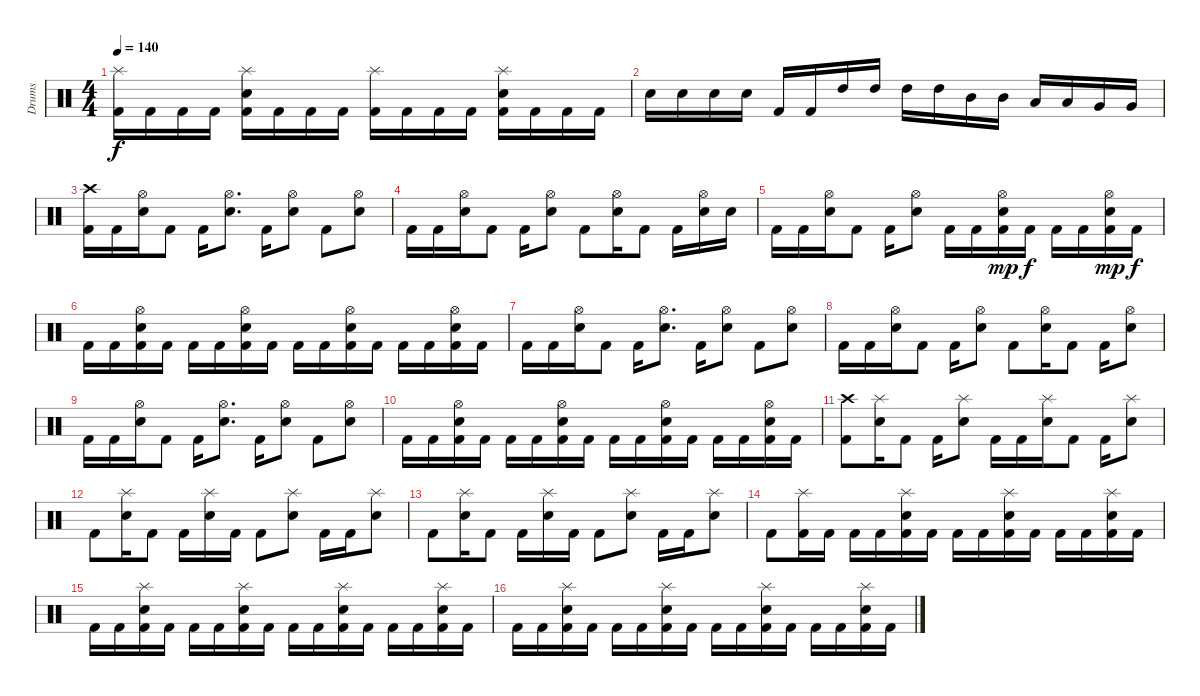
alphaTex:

\track ("Drums" "Drums") {instrument percussion}
\staff {score}
\articulation defaults
\ts (4 4)
\tempo 140
\clef neutral
\ks c
("Splash (hit)" "Kick (hit) 2").16{dy f} "Kick (hit) 2".16 "Kick (hit) 2".16 "Kick (hit) 2".16 ("Splash (hit)" "Snare (hit) 2" "Kick (hit) 2").16 "Kick (hit) 2".16 "Kick (hit) 2".16 "Kick (hit) 2".16 ("Splash (hit)" "Kick (hit) 2").16 "Kick (hit) 2".16 "Kick (hit) 2".16 "Kick (hit) 2".16 ("Splash (hit)" "Snare (hit) 2" "Kick (hit) 2").16 "Kick (hit) 2".16 "Kick (hit) 2".16 "Kick (hit) 2".16 |
"Snare (hit) 2".16 "Snare (hit) 2".16 "Snare (hit) 2".16 "Snare (hit) 2".16 "Kick (hit) 2".16 "Kick (hit) 2".16 "High Tom (hit)".16 "High Tom (hit)".16 "High Tom (hit)".16 "High Tom (hit)".16 "Mid Tom (hit)".16 "Mid Tom (hit)".16 "Low Tom (hit)".16 "Low Tom (hit)".16 "Very Low Tom (hit)".16 "Very Low Tom (hit)".16 |
("Crash high (hit)" "Kick (hit) 2").16 "Kick (hit) 2".16 ("Hi-Hat (open)" "Snare (hit) 2").16 "Kick (hit) 2".8 "Kick (hit) 2".16 ("Hi-Hat (open)" "Snare (hit) 2").8{d} "Kick (hit) 2".16 ("Hi-Hat (open)" "Snare (hit) 2").8 "Kick (hit) 2".8 ("Hi-Hat (open)" "Snare (hit) 2").8 |
"Kick (hit) 2".16 "Kick (hit) 2".16 ("Hi-Hat (open)" "Snare (hit) 2").16 "Kick (hit) 2".8 "Kick (hit) 2".16 ("Hi-Hat (open)" "Snare (hit) 2").8 "Kick (hit) 2".8 ("Hi-Hat (open)" "Snare (hit) 2").16 "Kick (hit) 2".8 "Kick (hit) 2".16 ("Hi-Hat (open)" "Snare (hit) 2").16 "Snare (hit) 2".16 |
"Kick (hit) 2".16 "Kick (hit) 2".16 ("Hi-Hat (open)" "Snare (hit) 2").16 "Kick (hit) 2".8 "Kick (hit) 2".16 ("Hi-Hat (open)" "Snare (hit) 2").8 "Kick (hit) 2".16 "Kick (hit) 2".16 ("Hi-Hat (open)" "Snare (hit) 2" "Kick (hit) 2").16{dy mp} "Kick (hit) 2".16{dy f} "Kick (hit) 2".16 "Kick (hit) 2".16 ("Hi-Hat (open)" "Snare (hit) 2" "Kick (hit) 2").16{dy mp} "Kick (hit) 2".16{dy f} |
"Kick (hit) 2".16 "Kick (hit) 2".16 ("Hi-Hat (open)" "Snare (hit) 2" "Kick (hit) 2").16 "Kick (hit) 2".16 "Kick (hit) 2".16 "Kick (hit) 2".16 ("Hi-Hat (open)" "Snare (hit) 2" "Kick (hit) 2").16 "Kick (hit) 2".16 "Kick (hit) 2".16 "Kick (hit) 2".16 ("Hi-Hat (open)" "Snare (hit) 2" "Kick (hit) 2").16 "Kick (hit) 2".16 "Kick (hit) 2".16 "Kick (hit) 2".16 ("Hi-Hat (open)" "Snare (hit) 2" "Kick (hit) 2").16 "Kick (hit) 2".16 |
"Kick (hit) 2".16 "Kick (hit) 2".16 ("Hi-Hat (open)" "Snare (hit) 2").16 "Kick (hit) 2".8 "Kick (hit) 2".16 ("Hi-Hat (open)" "Snare (hit) 2").8{d} "Kick (hit) 2".16 ("Hi-Hat (open)" "Snare (hit) 2").8 "Kick (hit) 2".8 ("Hi-Hat (open)" "Snare (hit) 2").8 |
"Kick (hit) 2".16 "Kick (hit) 2".16 ("Hi-Hat (open)" "Snare (hit) 2").16 "Kick (hit) 2".8 "Kick (hit) 2".16 ("Hi-Hat (open)" "Snare (hit) 2").8 "Kick (hit) 2".8 ("Hi-Hat (open)" "Snare (hit) 2").16 "Kick (hit) 2".8 "Kick (hit) 2".16 ("Hi-Hat (open)" "Snare (hit) 2").8 |
"Kick (hit) 2".16 "Kick (hit) 2".16 ("Hi-Hat (open)" "Snare (hit) 2").16 "Kick (hit) 2".8 "Kick (hit) 2".16 ("Hi-Hat (open)" "Snare (hit) 2").8{d} "Kick (hit) 2".16 ("Hi-Hat (open)" "Snare (hit) 2").8 "Kick (hit) 2".8 ("Hi-Hat (open)" "Snare (hit) 2").8 |
"Kick (hit) 2".16 "Kick (hit) 2".16 ("Hi-Hat (open)" "Snare (hit) 2" "Kick (hit) 2").16 "Kick (hit) 2".16 "Kick (hit) 2".16 "Kick (hit) 2".16 ("Hi-Hat (open)" "Snare (hit) 2" "Kick (hit) 2").16 "Kick (hit) 2".16 "Kick (hit) 2".16 "Kick (hit) 2".16 ("Hi-Hat (open)" "Snare (hit) 2" "Kick (hit) 2").16 "Kick (hit) 2".16 "Kick (hit) 2".16 "Kick (hit) 2".16 ("Hi-Hat (open)" "Snare (hit) 2" "Kick (hit) 2").16 "Kick (hit) 2".16 |
("Crash high (hit)" "Kick (hit) 2").8 ("Splash (hit)" "Snare (hit) 2").16 "Kick (hit) 2".8 "Kick (hit) 2".16 ("Splash (hit)" "Snare (hit) 2").8 "Kick (hit) 2".16 "Kick (hit) 2".16 ("Splash (hit)" "Snare (hit) 2").16 "Kick (hit) 2".8 "Kick (hit) 2".16 ("Splash (hit)" "Snare (hit) 2").8 |
"Kick (hit) 2".8 ("Splash (hit)" "Snare (hit) 2").16 "Kick (hit) 2".8 "Kick (hit) 2".16 ("Splash (hit)" "Snare (hit) 2").16 "Kick (hit) 2".16 "Kick (hit) 2".8 ("Splash (hit)" "Snare (hit) 2").8 "Kick (hit) 2".16 "Kick (hit) 2".16 ("Splash (hit)" "Snare (hit) 2").8 |
"Kick (hit) 2".8 ("Splash (hit)" "Snare (hit) 2").16 "Kick (hit) 2".8 "Kick (hit) 2".16 ("Splash (hit)" "Snare (hit) 2").16 "Kick (hit) 2".16 "Kick (hit) 2".8 ("Splash (hit)" "Snare (hit) 2").8 "Kick (hit) 2".16 "Kick (hit) 2".16 ("Splash (hit)" "Snare (hit) 2").8 |
"Kick (hit) 2".8 ("Splash (hit)" "Kick (hit) 2").16 "Kick (hit) 2".16 "Kick (hit) 2".16 "Kick (hit) 2".16 ("Splash (hit)" "Snare (hit) 2" "Kick (hit) 2").16 "Kick (hit) 2".16 "Kick (hit) 2".16 "Kick (hit) 2".16 ("Splash (hit)" "Snare (hit) 2" "Kick (hit) 2").16 "Kick (hit) 2".16 "Kick (hit) 2".16 "Kick (hit) 2".16 ("Splash (hit)" "Snare (hit) 2" "Kick (hit) 2").16 "Kick (hit) 2".16 |
"Kick (hit) 2".16 "Kick (hit) 2".16 ("Splash (hit)" "Snare (hit) 2" "Kick (hit) 2").16 "Kick (hit) 2".16 "Kick (hit) 2".16 "Kick (hit) 2".16 ("Splash (hit)" "Snare (hit) 2" "Kick (hit) 2").16 "Kick (hit) 2".16 "Kick (hit) 2".16 "Kick (hit) 2".16 ("Splash (hit)" "Snare (hit) 2" "Kick (hit) 2").16 "Kick (hit) 2".16 "Kick (hit) 2".16 "Kick (hit) 2".16 ("Splash (hit)" "Snare (hit) 2" "Kick (hit) 2").16 "Kick (hit) 2".16 |
"Kick (hit) 2".16 "Kick (hit) 2".16 ("Splash (hit)" "Snare (hit) 2" "Kick (hit) 2").16 "Kick (hit) 2".16 "Kick (hit) 2".16 "Kick (hit) 2".16 ("Splash (hit)" "Snare (hit) 2" "Kick (hit) 2").16 "Kick (hit) 2".16 "Kick (hit) 2".16 "Kick (hit) 2".16 ("Splash (hit)" "Snare (hit) 2" "Kick (hit) 2").16 "Kick (hit) 2".16 "Kick (hit) 2".16 "Kick (hit) 2".16 ("Splash (hit)" "Snare (hit) 2" "Kick (hit) 2").16 "Kick (hit) 2".16
